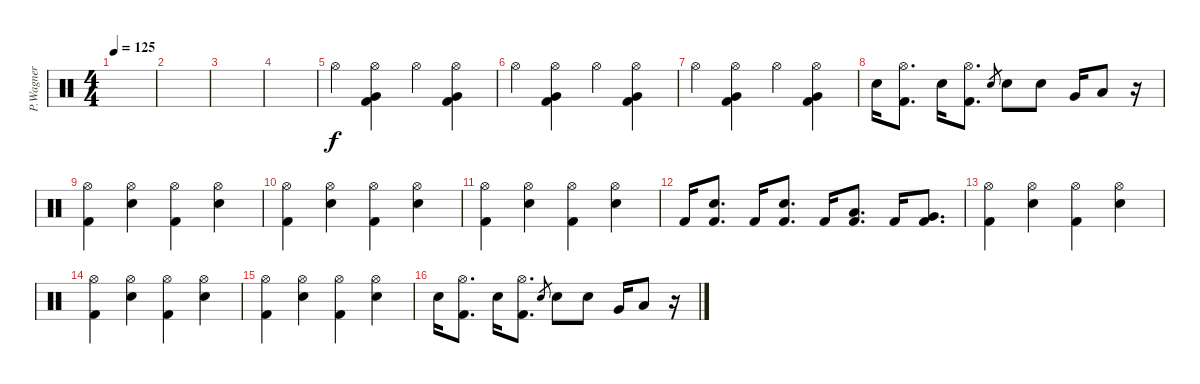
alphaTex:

\track ("P.Wagner" "P.Wagner") {instrument percussion}
\staff {score}
\articulation defaults
\ts (4 4)
\tempo 125
\clef neutral
\ks c
|
|
|
|
"Hi-Hat (open)".4 ("Very Low Tom (hit)" "Hi-Hat (open)" "Kick (hit) 2").4 "Hi-Hat (open)".4 ("Very Low Tom (hit)" "Hi-Hat (open)" "Kick (hit) 2").4 |
"Hi-Hat (open)".4 ("Very Low Tom (hit)" "Hi-Hat (open)" "Kick (hit) 2").4 "Hi-Hat (open)".4 ("Very Low Tom (hit)" "Hi-Hat (open)" "Kick (hit) 2").4 |
"Hi-Hat (open)".4 ("Very Low Tom (hit)" "Hi-Hat (open)" "Kick (hit) 2").4 "Hi-Hat (open)".4 ("Very Low Tom (hit)" "Hi-Hat (open)" "Kick (hit) 2").4 |
"Electric Snare (hit)".16 ("Kick (hit) 2" "Hi-Hat (open)").8{d} "Electric Snare (hit)".16 ("Kick (hit) 2" "Hi-Hat (open)").8{d} "Electric Snare (hit)".8{gr} "Electric Snare (hit)".8 "Electric Snare (hit)".8 "Very Low Tom (hit)".16 "Low Floor Tom (hit)".8 r.16 |
("Kick (hit) 2" "Hi-Hat (open)").4 ("Electric Snare (hit)" "Hi-Hat (open)").4 ("Kick (hit) 2" "Hi-Hat (open)").4 ("Hi-Hat (open)" "Electric Snare (hit)").4 |
("Kick (hit) 2" "Hi-Hat (open)").4 ("Electric Snare (hit)" "Hi-Hat (open)").4 ("Kick (hit) 2" "Hi-Hat (open)").4 ("Hi-Hat (open)" "Electric Snare (hit)").4 |
("Kick (hit) 2" "Hi-Hat (open)").4 ("Electric Snare (hit)" "Hi-Hat (open)").4 ("Kick (hit) 2" "Hi-Hat (open)").4 ("Hi-Hat (open)" "Electric Snare (hit)").4 |
"Kick (hit) 2".16 ("Electric Snare (hit)" "Kick (hit) 2").8{d} "Kick (hit) 2".16 ("Electric Snare (hit)" "Kick (hit) 2").8{d} "Kick (hit) 2".16 ("Low Tom (hit)" "Kick (hit) 2").8{d} "Kick (hit) 2".16 ("Very Low Tom (hit)" "Kick (hit) 2").8{d} |
("Kick (hit) 2" "Hi-Hat (open)").4 ("Electric Snare (hit)" "Hi-Hat (open)").4 ("Kick (hit) 2" "Hi-Hat (open)").4 ("Hi-Hat (open)" "Electric Snare (hit)").4 |
("Kick (hit) 2" "Hi-Hat (open)").4 ("Electric Snare (hit)" "Hi-Hat (open)").4 ("Kick (hit) 2" "Hi-Hat (open)").4 ("Hi-Hat (open)" "Electric Snare (hit)").4 |
("Kick (hit) 2" "Hi-Hat (open)").4 ("Electric Snare (hit)" "Hi-Hat (open)").4 ("Kick (hit) 2" "Hi-Hat (open)").4 ("Hi-Hat (open)" "Electric Snare (hit)").4 |
"Electric Snare (hit)".16 ("Kick (hit) 2" "Hi-Hat (open)").8{d} "Electric Snare (hit)".16 ("Kick (hit) 2" "Hi-Hat (open)").8{d} "Electric Snare (hit)".8{gr} "Electric Snare (hit)".8 "Electric Snare (hit)".8 "Very Low Tom (hit)".16 "Low Floor Tom (hit)".8 r.16
